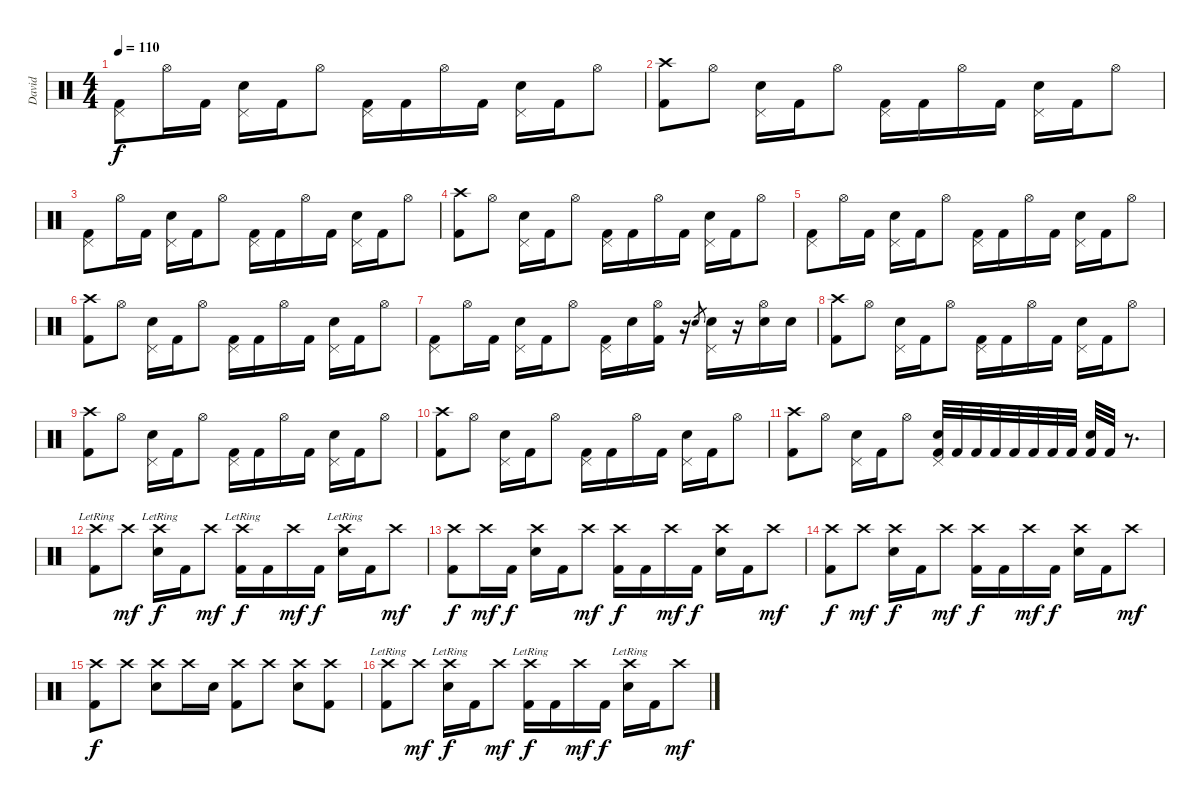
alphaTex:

\track ("David" "David") {instrument percussion}
\staff {score}
\articulation defaults
\ts (4 4)
\tempo 110
\clef neutral
\ks c
("Pedal Hi-Hat (hit)" "Kick (hit) 2").8{dy f} "Hi-Hat (open)".16 "Kick (hit) 2".16 ("Pedal Hi-Hat (hit)" "Electric Snare (hit)").16 "Kick (hit) 2".16 "Hi-Hat (open)".8 ("Pedal Hi-Hat (hit)" "Kick (hit) 2").16 "Kick (hit) 2".16 "Hi-Hat (open)".16 "Kick (hit) 2".16 ("Pedal Hi-Hat (hit)" "Electric Snare (hit)").16 "Kick (hit) 2".16 "Hi-Hat (open)".8 |
("Crash high (hit)" "Kick (hit) 2").8 "Hi-Hat (open)".8 ("Pedal Hi-Hat (hit)" "Electric Snare (hit)").16 "Kick (hit) 2".16 "Hi-Hat (open)".8 ("Pedal Hi-Hat (hit)" "Kick (hit) 2").16 "Kick (hit) 2".16 "Hi-Hat (open)".16 "Kick (hit) 2".16 ("Pedal Hi-Hat (hit)" "Electric Snare (hit)").16 "Kick (hit) 2".16 "Hi-Hat (open)".8 |
("Pedal Hi-Hat (hit)" "Kick (hit) 2").8 "Hi-Hat (open)".16 "Kick (hit) 2".16 ("Pedal Hi-Hat (hit)" "Electric Snare (hit)").16 "Kick (hit) 2".16 "Hi-Hat (open)".8 ("Pedal Hi-Hat (hit)" "Kick (hit) 2").16 "Kick (hit) 2".16 "Hi-Hat (open)".16 "Kick (hit) 2".16 ("Pedal Hi-Hat (hit)" "Electric Snare (hit)").16 "Kick (hit) 2".16 "Hi-Hat (open)".8 |
("Crash high (hit)" "Kick (hit) 2").8 "Hi-Hat (open)".8 ("Pedal Hi-Hat (hit)" "Electric Snare (hit)").16 "Kick (hit) 2".16 "Hi-Hat (open)".8 ("Pedal Hi-Hat (hit)" "Kick (hit) 2").16 "Kick (hit) 2".16 "Hi-Hat (open)".16 "Kick (hit) 2".16 ("Pedal Hi-Hat (hit)" "Electric Snare (hit)").16 "Kick (hit) 2".16 "Hi-Hat (open)".8 |
("Pedal Hi-Hat (hit)" "Kick (hit) 2").8 "Hi-Hat (open)".16 "Kick (hit) 2".16 ("Pedal Hi-Hat (hit)" "Electric Snare (hit)").16 "Kick (hit) 2".16 "Hi-Hat (open)".8 ("Pedal Hi-Hat (hit)" "Kick (hit) 2").16 "Kick (hit) 2".16 "Hi-Hat (open)".16 "Kick (hit) 2".16 ("Pedal Hi-Hat (hit)" "Electric Snare (hit)").16 "Kick (hit) 2".16 "Hi-Hat (open)".8 |
("Crash high (hit)" "Kick (hit) 2").8 "Hi-Hat (open)".8 ("Pedal Hi-Hat (hit)" "Electric Snare (hit)").16 "Kick (hit) 2".16 "Hi-Hat (open)".8 ("Pedal Hi-Hat (hit)" "Kick (hit) 2").16 "Kick (hit) 2".16 "Hi-Hat (open)".16 "Kick (hit) 2".16 ("Pedal Hi-Hat (hit)" "Electric Snare (hit)").16 "Kick (hit) 2".16 "Hi-Hat (open)".8 |
("Pedal Hi-Hat (hit)" "Kick (hit) 2").8 "Hi-Hat (open)".16 "Kick (hit) 2".16 ("Pedal Hi-Hat (hit)" "Electric Snare (hit)").16 "Kick (hit) 2".16 "Hi-Hat (open)".8 ("Pedal Hi-Hat (hit)" "Kick (hit) 2").16 "Electric Snare (hit)".16 ("Hi-Hat (open)" "Kick (hit) 2").16 r.16 "Electric Snare (hit)".8{gr} ("Pedal Hi-Hat (hit)" "Electric Snare (hit)").16 r.16 ("Hi-Hat (open)" "Electric Snare (hit)").16 "Electric Snare (hit)".16 |
("Crash high (hit)" "Kick (hit) 2").8 "Hi-Hat (open)".8 ("Pedal Hi-Hat (hit)" "Electric Snare (hit)").16 "Kick (hit) 2".16 "Hi-Hat (open)".8 ("Pedal Hi-Hat (hit)" "Kick (hit) 2").16 "Kick (hit) 2".16 "Hi-Hat (open)".16 "Kick (hit) 2".16 ("Pedal Hi-Hat (hit)" "Electric Snare (hit)").16 "Kick (hit) 2".16 "Hi-Hat (open)".8 |
("Crash high (hit)" "Kick (hit) 2").8 "Hi-Hat (open)".8 ("Pedal Hi-Hat (hit)" "Electric Snare (hit)").16 "Kick (hit) 2".16 "Hi-Hat (open)".8 ("Pedal Hi-Hat (hit)" "Kick (hit) 2").16 "Kick (hit) 2".16 "Hi-Hat (open)".16 "Kick (hit) 2".16 ("Pedal Hi-Hat (hit)" "Electric Snare (hit)").16 "Kick (hit) 2".16 "Hi-Hat (open)".8 |
("Crash high (hit)" "Kick (hit) 2").8 "Hi-Hat (open)".8 ("Pedal Hi-Hat (hit)" "Electric Snare (hit)").16 "Kick (hit) 2".16 "Hi-Hat (open)".8 ("Pedal Hi-Hat (hit)" "Kick (hit) 2").16 "Kick (hit) 2".16 "Hi-Hat (open)".16 "Kick (hit) 2".16 ("Pedal Hi-Hat (hit)" "Electric Snare (hit)").16 "Kick (hit) 2".16 "Hi-Hat (open)".8 |
("Crash high (hit)" "Kick (hit) 2").8 "Hi-Hat (open)".8 ("Pedal Hi-Hat (hit)" "Electric Snare (hit)").16 "Kick (hit) 2".16 "Hi-Hat (open)".8 ("Pedal Hi-Hat (hit)" "Electric Snare (hit)" "Kick (hit) 2").32 "Kick (hit) 2".32 "Kick (hit) 2".32 "Kick (hit) 2".32 "Kick (hit) 2".32 "Kick (hit) 2".32 "Kick (hit) 2".32 "Kick (hit) 2".32 ("Electric Snare (hit)" "Kick (hit) 2").32 "Kick (hit) 2".32 r.8{d} |
("Crash high (hit)"{lr} "Kick (hit) 2").8 "Crash high (hit)".8{dy mf} ("Crash high (hit)"{lr} "Electric Snare (hit)").16{dy f} "Kick (hit) 2".16 "Crash high (hit)".8{dy mf} ("Crash high (hit)"{lr} "Kick (hit) 2").16{dy f} "Kick (hit) 2".16 "Crash high (hit)".16{dy mf} "Kick (hit) 2".16{dy f} ("Crash high (hit)"{lr} "Electric Snare (hit)").16 "Kick (hit) 2".16 "Crash high (hit)".8{dy mf} |
("Crash high (hit)" "Kick (hit) 2").8{dy f} "Crash high (hit)".16{dy mf} "Kick (hit) 2".16{dy f} ("Crash high (hit)" "Electric Snare (hit)").16 "Kick (hit) 2".16 "Crash high (hit)".8{dy mf} ("Crash high (hit)" "Kick (hit) 2").16{dy f} "Kick (hit) 2".16 "Crash high (hit)".16{dy mf} "Kick (hit) 2".16{dy f} ("Crash high (hit)" "Electric Snare (hit)").16 "Kick (hit) 2".16 "Crash high (hit)".8{dy mf} |
("Crash high (hit)" "Kick (hit) 2").8{dy f} "Crash high (hit)".8{dy mf} ("Crash high (hit)" "Electric Snare (hit)").16{dy f} "Kick (hit) 2".16 "Crash high (hit)".8{dy mf} ("Crash high (hit)" "Kick (hit) 2").16{dy f} "Kick (hit) 2".16 "Crash high (hit)".16{dy mf} "Kick (hit) 2".16{dy f} ("Crash high (hit)" "Electric Snare (hit)").16 "Kick (hit) 2".16 "Crash high (hit)".8{dy mf} |
("Crash high (hit)" "Kick (hit) 2").8{dy f} "Crash high (hit)".8 ("Crash high (hit)" "Electric Snare (hit)").8 "Crash high (hit)".16 "Electric Snare (hit)".16 ("Crash high (hit)" "Kick (hit) 2").8 "Crash high (hit)".8 ("Crash high (hit)" "Electric Snare (hit)").8 ("Crash high (hit)" "Kick (hit) 2").8 |
("Crash high (hit)"{lr} "Kick (hit) 2").8 "Crash high (hit)".8{dy mf} ("Crash high (hit)"{lr} "Electric Snare (hit)").16{dy f} "Kick (hit) 2".16 "Crash high (hit)".8{dy mf} ("Crash high (hit)"{lr} "Kick (hit) 2").16{dy f} "Kick (hit) 2".16 "Crash high (hit)".16{dy mf} "Kick (hit) 2".16{dy f} ("Crash high (hit)"{lr} "Electric Snare (hit)").16 "Kick (hit) 2".16 "Crash high (hit)".8{dy mf}
